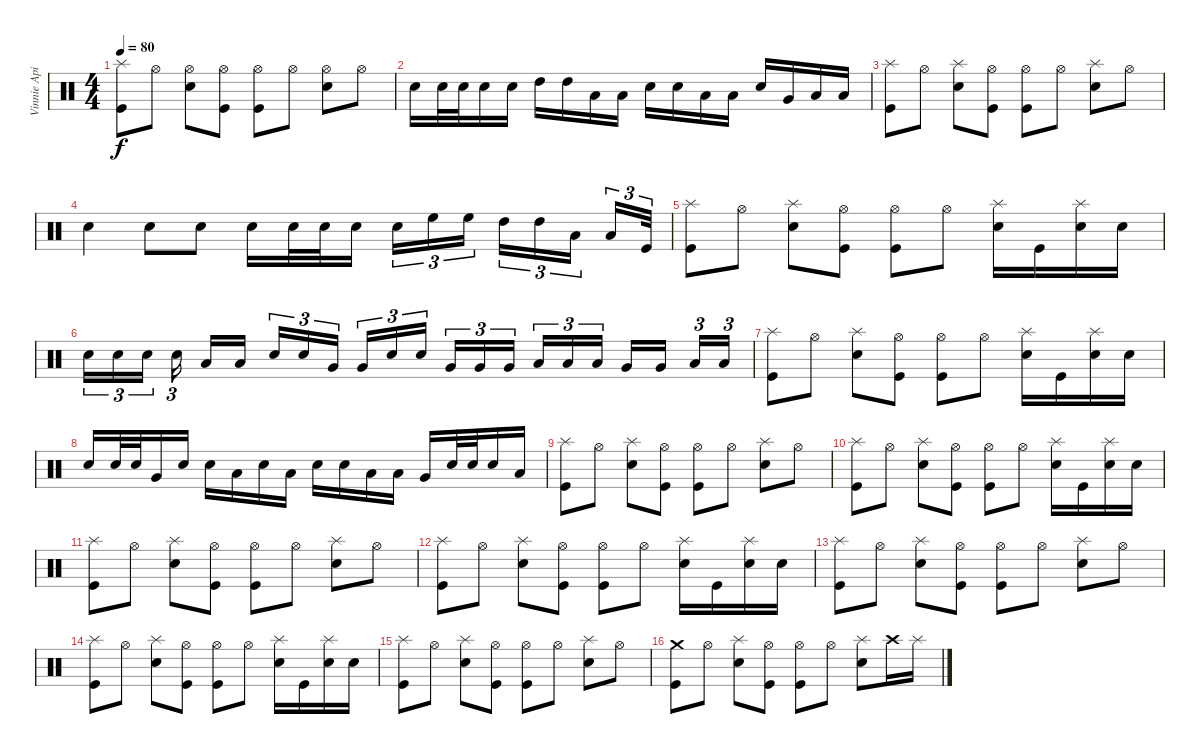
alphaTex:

\track ("Vinnie Apice" "Vinnie Api") {instrument percussion}
\staff {score}
\articulation defaults
\ts (4 4)
\tempo 80
\clef neutral
\ks c
("Splash (hit)" "Kick (hit)").8{dy f} "Hi-Hat (open)".8 ("Hi-Hat (open)" "Snare (hit) 2").8 ("Hi-Hat (open)" "Kick (hit)").8 ("Hi-Hat (open)" "Kick (hit)").8 "Hi-Hat (open)".8 ("Hi-Hat (open)" "Snare (hit) 2").8 "Hi-Hat (open)".8 |
"Snare (hit) 2".16 "Snare (hit) 2".32 "Snare (hit) 2".32 "Snare (hit) 2".16 "Snare (hit) 2".16 "High Tom (hit)".16 "High Tom (hit)".16 "Low Tom (hit)".16 "Low Tom (hit)".16 "Snare (hit) 2".16 "Snare (hit) 2".16 "Low Tom (hit)".16 "Low Tom (hit)".16 "Snare (hit) 2".16 "Very Low Tom (hit)".16 "Low Floor Tom (hit)".16 "Low Floor Tom (hit)".16 |
("Splash (hit)" "Kick (hit)").8 "Hi-Hat (open)".8 ("Splash (hit)" "Snare (hit) 2").8 ("Hi-Hat (open)" "Kick (hit)").8 ("Hi-Hat (open)" "Kick (hit)").8 "Hi-Hat (open)".8 ("Splash (hit)" "Snare (hit) 2").8 "Hi-Hat (open)".8 |
"Snare (hit) 2".4 "Snare (hit) 2".8 "Snare (hit) 2".8 "Snare (hit) 2".16 "Snare (hit) 2".32 "Snare (hit) 2".32 "Snare (hit) 2".16{beam splitsecondary} "Snare (hit) 2".16{tu (3 2)} "High Floor Tom (hit)".16{tu (3 2)} "High Floor Tom (hit)".16{tu (3 2) beam splitsecondary} "High Tom (hit)".16{tu (3 2)} "High Tom (hit)".16{tu (3 2)} "Low Tom (hit)".16{tu (3 2) beam splitsecondary} "Low Tom (hit)".16{tu (3 2)} "Kick (hit)".32{tu (3 2)} |
("Splash (hit)" "Kick (hit)").8 "Hi-Hat (open)".8 ("Splash (hit)" "Snare (hit) 2").8 ("Hi-Hat (open)" "Kick (hit)").8 ("Hi-Hat (open)" "Kick (hit)").8 "Hi-Hat (open)".8 ("Splash (hit)" "Snare (hit) 2").16 "Kick (hit)".16 ("Splash (hit)" "Snare (hit) 2").16 "Snare (hit) 2".16 |
"Snare (hit) 2".16{tu (3 2)} "Snare (hit) 2".16{tu (3 2)} "Snare (hit) 2".16{tu (3 2) beam splitsecondary} "Snare (hit) 2".16{tu (3 2) beam splitsecondary} "Low Tom (hit)".16 "Low Tom (hit)".16 "Snare (hit) 2".16{tu (3 2)} "Snare (hit) 2".16{tu (3 2)} "Very Low Tom (hit)".16{tu (3 2) beam splitsecondary} "Very Low Tom (hit)".16{tu (3 2)} "Snare (hit) 2".16{tu (3 2)} "Snare (hit) 2".16{tu (3 2) beam splitsecondary} "Very Low Tom (hit)".16{tu (3 2)} "Very Low Tom (hit)".16{tu (3 2)} "Very Low Tom (hit)".16{tu (3 2) beam splitsecondary} "Low Tom (hit)".16{tu (3 2)} "Low Tom (hit)".16{tu (3 2)} "Low Tom (hit)".16{tu (3 2) beam splitsecondary} "Very Low Tom (hit)".16 "Very Low Tom (hit)".16{beam splitsecondary} "Low Floor Tom (hit)".16{tu (3 2)} "Low Floor Tom (hit)".16{tu (3 2)} |
("Splash (hit)" "Kick (hit)").8 "Hi-Hat (open)".8 ("Splash (hit)" "Snare (hit) 2").8 ("Hi-Hat (open)" "Kick (hit)").8 ("Hi-Hat (open)" "Kick (hit)").8 "Hi-Hat (open)".8 ("Splash (hit)" "Snare (hit) 2").16 "Kick (hit)".16 ("Splash (hit)" "Snare (hit) 2").16 "Snare (hit) 2".16 |
"Snare (hit) 2".16 "Snare (hit) 2".32 "Snare (hit) 2".32 "Very Low Tom (hit)".16 "Snare (hit) 2".16 "Snare (hit) 2".16 "Low Floor Tom (hit)".16 "Snare (hit) 2".16 "Low Tom (hit)".16 "Snare (hit) 2".16 "Snare (hit) 2".16 "Low Tom (hit)".16 "Low Tom (hit)".16 "Very Low Tom (hit)".16 "Snare (hit) 2".32 "Snare (hit) 2".32 "Snare (hit) 2".16 "Low Floor Tom (hit)".16 |
("Splash (hit)" "Kick (hit)").8 "Hi-Hat (open)".8 ("Splash (hit)" "Snare (hit) 2").8 ("Hi-Hat (open)" "Kick (hit)").8 ("Hi-Hat (open)" "Kick (hit)").8 "Hi-Hat (open)".8 ("Splash (hit)" "Snare (hit) 2").8 "Hi-Hat (open)".8 |
("Splash (hit)" "Kick (hit)").8 "Hi-Hat (open)".8 ("Splash (hit)" "Snare (hit) 2").8 ("Hi-Hat (open)" "Kick (hit)").8 ("Hi-Hat (open)" "Kick (hit)").8 "Hi-Hat (open)".8 ("Splash (hit)" "Snare (hit) 2").16 "Kick (hit)".16 ("Splash (hit)" "Snare (hit) 2").16 "Snare (hit) 2".16 |
("Splash (hit)" "Kick (hit)").8 "Hi-Hat (open)".8 ("Splash (hit)" "Snare (hit) 2").8 ("Hi-Hat (open)" "Kick (hit)").8 ("Hi-Hat (open)" "Kick (hit)").8 "Hi-Hat (open)".8 ("Splash (hit)" "Snare (hit) 2").8 "Hi-Hat (open)".8 |
("Splash (hit)" "Kick (hit)").8 "Hi-Hat (open)".8 ("Splash (hit)" "Snare (hit) 2").8 ("Hi-Hat (open)" "Kick (hit)").8 ("Hi-Hat (open)" "Kick (hit)").8 "Hi-Hat (open)".8 ("Splash (hit)" "Snare (hit) 2").16 "Kick (hit)".16 ("Splash (hit)" "Snare (hit) 2").16 "Snare (hit) 2".16 |
("Splash (hit)" "Kick (hit)").8 "Hi-Hat (open)".8 ("Splash (hit)" "Snare (hit) 2").8 ("Hi-Hat (open)" "Kick (hit)").8 ("Hi-Hat (open)" "Kick (hit)").8 "Hi-Hat (open)".8 ("Splash (hit)" "Snare (hit) 2").8 "Hi-Hat (open)".8 |
("Splash (hit)" "Kick (hit)").8 "Hi-Hat (open)".8 ("Splash (hit)" "Snare (hit) 2").8 ("Hi-Hat (open)" "Kick (hit)").8 ("Hi-Hat (open)" "Kick (hit)").8 "Hi-Hat (open)".8 ("Splash (hit)" "Snare (hit) 2").16 "Kick (hit)".16 ("Splash (hit)" "Snare (hit) 2").16 "Snare (hit) 2".16 |
("Splash (hit)" "Kick (hit)").8{volume 0} "Hi-Hat (open)".8 ("Splash (hit)" "Snare (hit) 2").8 ("Hi-Hat (open)" "Kick (hit)").8 ("Hi-Hat (open)" "Kick (hit)").8 "Hi-Hat (open)".8 ("Splash (hit)" "Snare (hit) 2").8 "Hi-Hat (open)".8 |
("Crash medium (hit)" "Kick (hit)").8 "Hi-Hat (open)".8 ("Splash (hit)" "Snare (hit) 2").8 ("Hi-Hat (open)" "Kick (hit)").8 ("Hi-Hat (open)" "Kick (hit)").8 "Hi-Hat (open)".8 ("Splash (hit)" "Snare (hit) 2").8 "Crash high (hit)".16 "Splash (hit)".16
